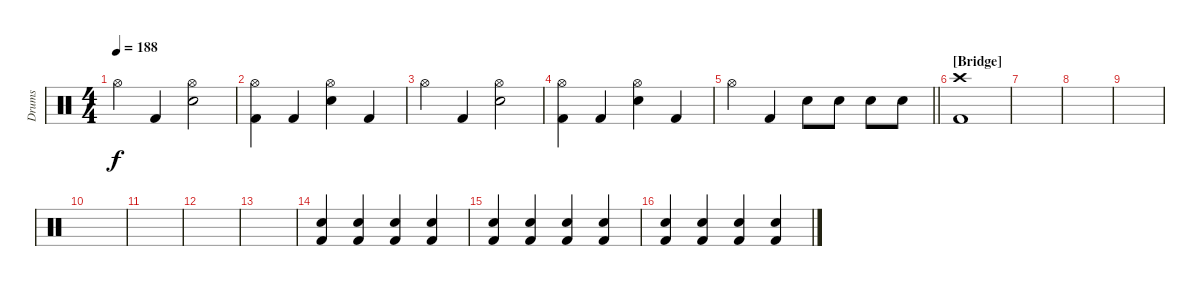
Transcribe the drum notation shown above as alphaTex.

\track ("Drums" "Drums") {instrument percussion}
\staff {score}
\articulation defaults
\ts (4 4)
\tempo 188
\clef neutral
\ks c "Hi-Hat (open)".4{dy f} "Kick (hit) 2".4
("Hi-Hat (open)" "Electric Snare (hit)").2 |
("Hi-Hat (open)" "Kick (hit) 2").4 "Kick (hit) 2".4 ("Hi-Hat (open)" "Electric Snare (hit)").4 "Kick (hit) 2".4 |
"Hi-Hat (open)".4 "Kick (hit) 2".4 ("Hi-Hat (open)" "Electric Snare (hit)").2 |
("Hi-Hat (open)" "Kick (hit) 2").4 "Kick (hit) 2".4 ("Hi-Hat (open)" "Electric Snare (hit)").4 "Kick (hit) 2".4 |
\barLineRight lightlight "Hi-Hat (open)".4 "Kick (hit) 2".4 "Electric Snare (hit)".8 "Electric Snare (hit)".8 "Electric Snare (hit)".8 "Electric Snare (hit)".8
|
\section ("" "[Bridge]")
("Crash high (hit)" "Kick (hit) 2").1 |
|
|
|
|
|
|
|
("Electric Snare (hit)" "Kick (hit) 2").4{volume 16} ("Electric Snare (hit)" "Kick (hit) 2").4 ("Electric Snare (hit)" "Kick (hit) 2").4 ("Electric Snare (hit)" "Kick (hit) 2").4 |
("Electric Snare (hit)" "Kick (hit) 2").4 ("Electric Snare (hit)" "Kick (hit) 2").4 ("Electric Snare (hit)" "Kick (hit) 2").4 ("Electric Snare (hit)" "Kick (hit) 2").4 |
("Electric Snare (hit)" "Kick (hit) 2").4 ("Electric Snare (hit)" "Kick (hit) 2").4 ("Electric Snare (hit)" "Kick (hit) 2").4 ("Electric Snare (hit)" "Kick (hit) 2").4
